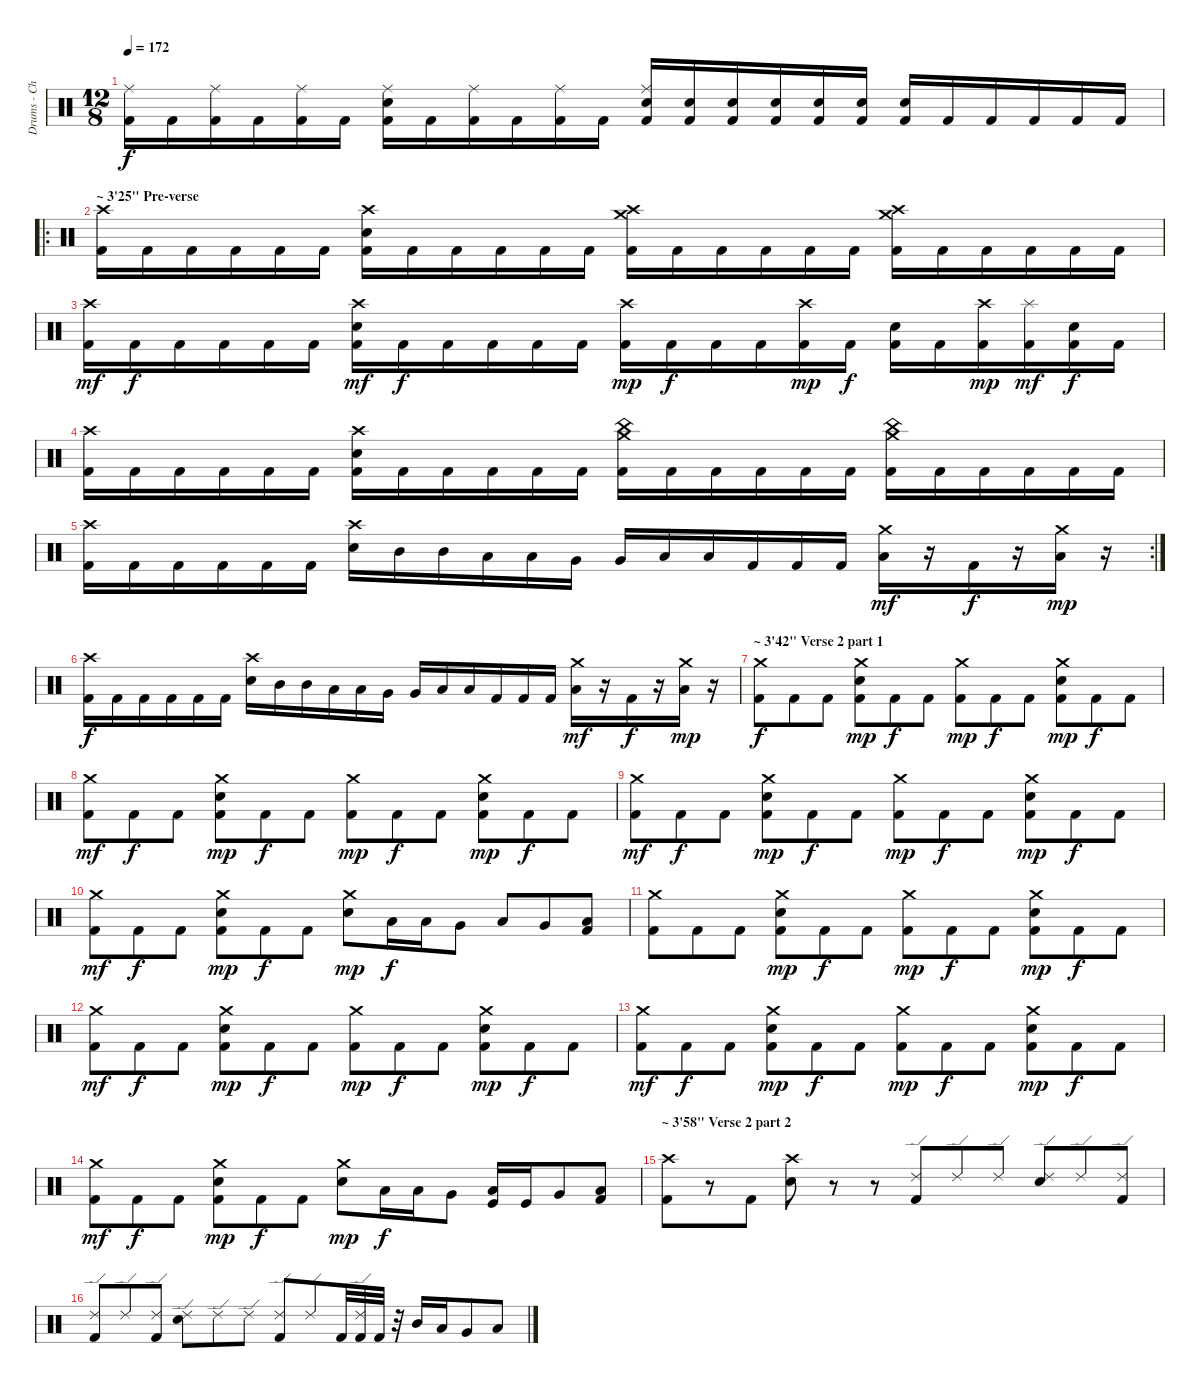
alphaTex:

\track ("Drums - Christopher Merzinsky" "Drums - Ch") {instrument percussion}
\staff {score}
\articulation defaults
\ts (12 8)
\tempo 172
\clef neutral
\ks c
("Kick (hit) 2" "Ride (middle)").16{dy f} "Kick (hit) 2".16 ("Kick (hit) 2" "Ride (middle)").16 "Kick (hit) 2".16 ("Kick (hit) 2" "Ride (middle)").16 "Kick (hit) 2".16 ("Kick (hit) 2" "Electric Snare (hit)" "Ride (middle)").16 "Kick (hit) 2".16 ("Kick (hit) 2" "Ride (middle)").16 "Kick (hit) 2".16 ("Kick (hit) 2" "Ride (middle)").16 "Kick (hit) 2".16 ("Kick (hit) 2" "Ride (middle)" "Electric Snare (hit)").16 ("Kick (hit) 2" "Electric Snare (hit)").16 ("Kick (hit) 2" "Electric Snare (hit)").16 ("Kick (hit) 2" "Electric Snare (hit)").16 ("Electric Snare (hit)" "Kick (hit) 2").16 ("Electric Snare (hit)" "Kick (hit) 2").16 ("Electric Snare (hit)" "Kick (hit) 2").16 "Kick (hit) 2".16 "Kick (hit) 2".16 "Kick (hit) 2".16 "Kick (hit) 2".16 "Kick (hit) 2".16 |
\ro
\section ("" "~ 3'25\" Pre-verse")
("Crash high (hit)" "Kick (hit) 2").16 "Kick (hit) 2".16 "Kick (hit) 2".16 "Kick (hit) 2".16 "Kick (hit) 2".16 "Kick (hit) 2".16 ("Electric Snare (hit)" "Crash high (hit)" "Kick (hit) 2").16 "Kick (hit) 2".16 "Kick (hit) 2".16 "Kick (hit) 2".16 "Kick (hit) 2".16 "Kick (hit) 2".16 ("Crash medium (hit)" "Crash high (hit)" "Kick (hit) 2").16 "Kick (hit) 2".16 "Kick (hit) 2".16 "Kick (hit) 2".16 "Kick (hit) 2".16 "Kick (hit) 2".16 ("Crash medium (hit)" "Kick (hit) 2" "Crash high (hit)").16 "Kick (hit) 2".16 "Kick (hit) 2".16 "Kick (hit) 2".16 "Kick (hit) 2".16 "Kick (hit) 2".16 |
("Kick (hit) 2" "Crash high (hit)").16{dy mf} "Kick (hit) 2".16{dy f} "Kick (hit) 2".16 "Kick (hit) 2".16 "Kick (hit) 2".16 "Kick (hit) 2".16 ("Kick (hit) 2" "Electric Snare (hit)" "Crash high (hit)").16{dy mf} "Kick (hit) 2".16{dy f} "Kick (hit) 2".16 "Kick (hit) 2".16 "Kick (hit) 2".16 "Kick (hit) 2".16 ("Kick (hit) 2" "Crash high (hit)").16{dy mp} "Kick (hit) 2".16{dy f} "Kick (hit) 2".16 "Kick (hit) 2".16 ("Kick (hit) 2" "Crash high (hit)").16{dy mp} "Kick (hit) 2".16{dy f} ("Kick (hit) 2" "Electric Snare (hit)").16 "Kick (hit) 2".16 ("Kick (hit) 2" "Crash high (hit)").16{dy mp} ("Kick (hit) 2" "Splash (hit)").16{dy mf} ("Kick (hit) 2" "Electric Snare (hit)").16{dy f} "Kick (hit) 2".16 |
("Crash high (hit)" "Kick (hit) 2").16 "Kick (hit) 2".16 "Kick (hit) 2".16 "Kick (hit) 2".16 "Kick (hit) 2".16 "Kick (hit) 2".16 ("Electric Snare (hit)" "Crash high (hit)" "Kick (hit) 2").16 "Kick (hit) 2".16 "Kick (hit) 2".16 "Kick (hit) 2".16 "Kick (hit) 2".16 "Kick (hit) 2".16 ("China (hit)" "Crash medium (hit)" "Kick (hit) 2").16 "Kick (hit) 2".16 "Kick (hit) 2".16 "Kick (hit) 2".16 "Kick (hit) 2".16 "Kick (hit) 2".16 ("China (hit)" "Crash medium (hit)" "Kick (hit) 2").16 "Kick (hit) 2".16 "Kick (hit) 2".16 "Kick (hit) 2".16 "Kick (hit) 2".16 "Kick (hit) 2".16 |
\rc 2
("Crash high (hit)" "Kick (hit) 2").16 "Kick (hit) 2".16 "Kick (hit) 2".16 "Kick (hit) 2".16 "Kick (hit) 2".16 "Kick (hit) 2".16 ("Electric Snare (hit)" "Crash high (hit)").16 "Mid Tom (hit)".16 "Mid Tom (hit)".16 "Low Tom (hit)".16 "Low Tom (hit)".16 "Very Low Tom (hit)".16 "Very Low Tom (hit)".16 "Low Floor Tom (hit)".16 "Low Floor Tom (hit)".16 "Kick (hit) 2".16 "Kick (hit) 2".16 "Kick (hit) 2".16 ("Crash medium (hit)" "Low Floor Tom (hit)").16{dy mf} r.16 "Kick (hit) 2".16{dy f} r.16 ("Crash medium (hit)" "Low Floor Tom (hit)").16{dy mp} r.16 |
("Crash high (hit)" "Kick (hit) 2").16{dy f} "Kick (hit) 2".16 "Kick (hit) 2".16 "Kick (hit) 2".16 "Kick (hit) 2".16 "Kick (hit) 2".16 ("Electric Snare (hit)" "Crash high (hit)").16 "Mid Tom (hit)".16 "Mid Tom (hit)".16 "Low Tom (hit)".16 "Low Tom (hit)".16 "Very Low Tom (hit)".16 "Very Low Tom (hit)".16 "Low Floor Tom (hit)".16 "Low Floor Tom (hit)".16 "Kick (hit) 2".16 "Kick (hit) 2".16 "Kick (hit) 2".16 ("Crash medium (hit)" "Low Floor Tom (hit)").16{dy mf} r.16 "Kick (hit) 2".16{dy f} r.16 ("Crash medium (hit)" "Low Floor Tom (hit)").16{dy mp} r.16 |
\section ("" "~ 3'42\" Verse 2 part 1")
("Kick (hit) 2" "Crash medium (hit)").8{dy f} "Kick (hit) 2".8 "Kick (hit) 2".8 ("Electric Snare (hit)" "Kick (hit) 2" "Crash medium (hit)").8{dy mp} "Kick (hit) 2".8{dy f} "Kick (hit) 2".8 ("Kick (hit) 2" "Crash medium (hit)").8{dy mp} "Kick (hit) 2".8{dy f} "Kick (hit) 2".8 ("Kick (hit) 2" "Electric Snare (hit)" "Crash medium (hit)").8{dy mp} "Kick (hit) 2".8{dy f} "Kick (hit) 2".8 |
("Kick (hit) 2" "Crash medium (hit)").8{dy mf} "Kick (hit) 2".8{dy f} "Kick (hit) 2".8 ("Electric Snare (hit)" "Kick (hit) 2" "Crash medium (hit)").8{dy mp} "Kick (hit) 2".8{dy f} "Kick (hit) 2".8 ("Kick (hit) 2" "Crash medium (hit)").8{dy mp} "Kick (hit) 2".8{dy f} "Kick (hit) 2".8 ("Kick (hit) 2" "Electric Snare (hit)" "Crash medium (hit)").8{dy mp} "Kick (hit) 2".8{dy f} "Kick (hit) 2".8 |
("Kick (hit) 2" "Crash medium (hit)").8{dy mf} "Kick (hit) 2".8{dy f} "Kick (hit) 2".8 ("Electric Snare (hit)" "Kick (hit) 2" "Crash medium (hit)").8{dy mp} "Kick (hit) 2".8{dy f} "Kick (hit) 2".8 ("Kick (hit) 2" "Crash medium (hit)").8{dy mp} "Kick (hit) 2".8{dy f} "Kick (hit) 2".8 ("Kick (hit) 2" "Electric Snare (hit)" "Crash medium (hit)").8{dy mp} "Kick (hit) 2".8{dy f} "Kick (hit) 2".8 |
("Kick (hit) 2" "Crash medium (hit)").8{dy mf} "Kick (hit) 2".8{dy f} "Kick (hit) 2".8 ("Electric Snare (hit)" "Kick (hit) 2" "Crash medium (hit)").8{dy mp} "Kick (hit) 2".8{dy f} "Kick (hit) 2".8 ("Electric Snare (hit)" "Crash medium (hit)").8{dy mp} "Low Tom (hit)".16{dy f} "Low Tom (hit)".16 "Very Low Tom (hit)".8 "Low Tom (hit)".8 "Very Low Tom (hit)".8 ("Low Floor Tom (hit)" "Kick (hit) 2").8 |
("Kick (hit) 2" "Crash medium (hit)").8 "Kick (hit) 2".8 "Kick (hit) 2".8 ("Electric Snare (hit)" "Kick (hit) 2" "Crash medium (hit)").8{dy mp} "Kick (hit) 2".8{dy f} "Kick (hit) 2".8 ("Kick (hit) 2" "Crash medium (hit)").8{dy mp} "Kick (hit) 2".8{dy f} "Kick (hit) 2".8 ("Kick (hit) 2" "Electric Snare (hit)" "Crash medium (hit)").8{dy mp} "Kick (hit) 2".8{dy f} "Kick (hit) 2".8 |
("Kick (hit) 2" "Crash medium (hit)").8{dy mf} "Kick (hit) 2".8{dy f} "Kick (hit) 2".8 ("Electric Snare (hit)" "Kick (hit) 2" "Crash medium (hit)").8{dy mp} "Kick (hit) 2".8{dy f} "Kick (hit) 2".8 ("Kick (hit) 2" "Crash medium (hit)").8{dy mp} "Kick (hit) 2".8{dy f} "Kick (hit) 2".8 ("Kick (hit) 2" "Electric Snare (hit)" "Crash medium (hit)").8{dy mp} "Kick (hit) 2".8{dy f} "Kick (hit) 2".8 |
("Kick (hit) 2" "Crash medium (hit)").8{dy mf} "Kick (hit) 2".8{dy f} "Kick (hit) 2".8 ("Electric Snare (hit)" "Kick (hit) 2" "Crash medium (hit)").8{dy mp} "Kick (hit) 2".8{dy f} "Kick (hit) 2".8 ("Kick (hit) 2" "Crash medium (hit)").8{dy mp} "Kick (hit) 2".8{dy f} "Kick (hit) 2".8 ("Kick (hit) 2" "Electric Snare (hit)" "Crash medium (hit)").8{dy mp} "Kick (hit) 2".8{dy f} "Kick (hit) 2".8 |
("Kick (hit) 2" "Crash medium (hit)").8{dy mf} "Kick (hit) 2".8{dy f} "Kick (hit) 2".8 ("Electric Snare (hit)" "Kick (hit) 2" "Crash medium (hit)").8{dy mp} "Kick (hit) 2".8{dy f} "Kick (hit) 2".8 ("Electric Snare (hit)" "Crash medium (hit)").8{dy mp} "Low Tom (hit)".16{dy f} "Low Tom (hit)".16 "Very Low Tom (hit)".8 ("Low Tom (hit)" "Kick (hit)").16 "Kick (hit)".16 "Very Low Tom (hit)".8 ("Low Floor Tom (hit)" "Kick (hit) 2").8 |
\section ("" "~ 3'58\" Verse 2 part 2")
("Crash high (hit)" "Kick (hit) 2").8 r.8 "Kick (hit) 2".8 ("Crash high (hit)" "Electric Snare (hit)").8 r.8 r.8 ("Kick (hit) 2" "Ride (edge) 2").8 "Ride (edge) 2".8 "Ride (edge) 2".8 ("Electric Snare (hit)" "Ride (edge) 2").8 "Ride (edge) 2".8 ("Kick (hit) 2" "Ride (edge) 2").8 |
("Kick (hit) 2" "Ride (edge) 2").8 "Ride (edge) 2".8 ("Kick (hit) 2" "Ride (edge) 2").8 ("Electric Snare (hit)" "Ride (edge) 2").8 "Ride (edge) 2".8 "Ride (edge) 2".8 ("Kick (hit) 2" "Ride (edge) 2").8 "Ride (edge) 2".8 "Kick (hit) 2".32 ("Ride (edge) 2" "Kick (hit) 2").32 "Kick (hit) 2".32 r.32 "Mid Tom (hit)".16 "Low Tom (hit)".16 "Very Low Tom (hit)".8 "Low Floor Tom (hit)".8
